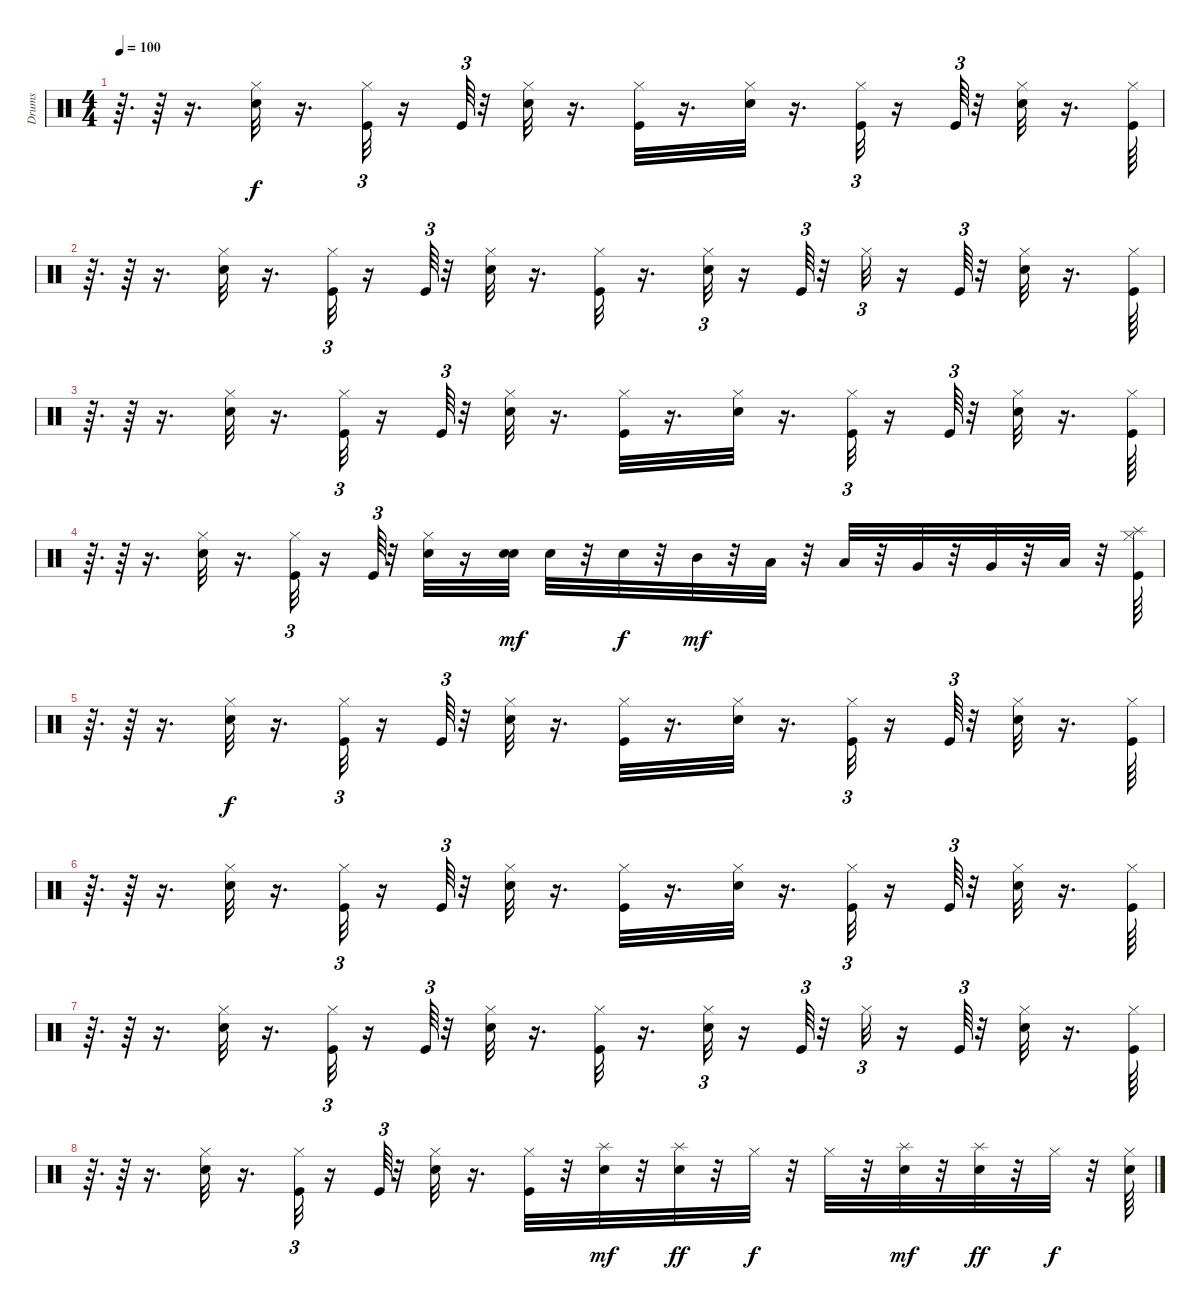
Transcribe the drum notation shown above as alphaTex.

\track ("Drums" "Drums") {instrument percussion}
\staff {score}
\articulation defaults
\ts (4 4)
\tempo 100
\clef neutral
\ks c
r.64{d dy mf} r.64 r.16{d} ("Snare (hit) 2" "Hi-Hat (closed)").32{dy f} r.16{d} ("Kick (hit)" "Hi-Hat (closed)").32{tu (3 2)} r.16 "Kick (hit)".64{tu (3 2)} r.32 ("Snare (hit) 2" "Hi-Hat (closed)").32 r.16{d} ("Kick (hit)" "Hi-Hat (closed)").32 r.16{d} ("Snare (hit) 2" "Hi-Hat (closed)").32 r.16{d} ("Kick (hit)" "Hi-Hat (closed)").32{tu (3 2)} r.16 "Kick (hit)".64{tu (3 2)} r.32 ("Snare (hit) 2" "Hi-Hat (closed)").32 r.16{d} ("Kick (hit)" "Hi-Hat (closed)").64 |
r.64{d} r.64 r.16{d} ("Snare (hit) 2" "Hi-Hat (closed)").32 r.16{d} ("Kick (hit)" "Hi-Hat (closed)").32{tu (3 2)} r.16 "Kick (hit)".64{tu (3 2)} r.32 ("Snare (hit) 2" "Hi-Hat (closed)").32 r.16{d} ("Kick (hit)" "Hi-Hat (closed)").32 r.16{d} ("Snare (hit) 2" "Hi-Hat (closed)").32{tu (3 2)} r.16 "Kick (hit)".64{tu (3 2)} r.32 "Hi-Hat (closed)".32{tu (3 2)} r.16 "Kick (hit)".64{tu (3 2)} r.32 ("Snare (hit) 2" "Hi-Hat (closed)").32 r.16{d} ("Kick (hit)" "Hi-Hat (closed)").64 |
r.64{d} r.64 r.16{d} ("Snare (hit) 2" "Hi-Hat (closed)").32 r.16{d} ("Kick (hit)" "Hi-Hat (closed)").32{tu (3 2)} r.16 "Kick (hit)".64{tu (3 2)} r.32 ("Snare (hit) 2" "Hi-Hat (closed)").32 r.16{d} ("Kick (hit)" "Hi-Hat (closed)").32 r.16{d} ("Snare (hit) 2" "Hi-Hat (closed)").32 r.16{d} ("Kick (hit)" "Hi-Hat (closed)").32{tu (3 2)} r.16 "Kick (hit)".64{tu (3 2)} r.32 ("Snare (hit) 2" "Hi-Hat (closed)").32 r.16{d} ("Kick (hit)" "Hi-Hat (closed)").64 |
r.64{d} r.64 r.16{d} ("Snare (hit) 2" "Hi-Hat (closed)").32 r.16{d} ("Kick (hit)" "Hi-Hat (closed)").32{tu (3 2)} r.16 "Kick (hit)".64{tu (3 2)} r.32 ("Snare (hit) 2" "Hi-Hat (closed)").32 r.16 ("Snare (hit) 2" "Snare (hit) 2").32{dy mf} "Snare (hit) 2".32 r.32 "Snare (hit) 2".32{dy f} r.32 "Mid Tom (hit)".32{dy mf} r.32 "Low Tom (hit)".32 r.32 "Low Tom (hit)".32 r.32 "Very Low Tom (hit)".32 r.32 "Very Low Tom (hit)".32 r.32 "Low Floor Tom (hit)".32 r.32 ("Kick (hit)" "Hi-Hat (closed)" "Splash (hit)").64 |
r.64{d} r.64 r.16{d} ("Snare (hit) 2" "Hi-Hat (closed)").32{dy f} r.16{d} ("Kick (hit)" "Hi-Hat (closed)").32{tu (3 2)} r.16 "Kick (hit)".64{tu (3 2)} r.32 ("Snare (hit) 2" "Hi-Hat (closed)").32 r.16{d} ("Kick (hit)" "Hi-Hat (closed)").32 r.16{d} ("Snare (hit) 2" "Hi-Hat (closed)").32 r.16{d} ("Kick (hit)" "Hi-Hat (closed)").32{tu (3 2)} r.16 "Kick (hit)".64{tu (3 2)} r.32 ("Snare (hit) 2" "Hi-Hat (closed)").32 r.16{d} ("Kick (hit)" "Hi-Hat (closed)").64 |
r.64{d} r.64 r.16{d} ("Snare (hit) 2" "Hi-Hat (closed)").32 r.16{d} ("Kick (hit)" "Hi-Hat (closed)").32{tu (3 2)} r.16 "Kick (hit)".64{tu (3 2)} r.32 ("Snare (hit) 2" "Hi-Hat (closed)").32 r.16{d} ("Kick (hit)" "Hi-Hat (closed)").32 r.16{d} ("Snare (hit) 2" "Hi-Hat (closed)").32 r.16{d} ("Kick (hit)" "Hi-Hat (closed)").32{tu (3 2)} r.16 "Kick (hit)".64{tu (3 2)} r.32 ("Snare (hit) 2" "Hi-Hat (closed)").32 r.16{d} ("Kick (hit)" "Hi-Hat (closed)").64 |
r.64{d} r.64 r.16{d} ("Snare (hit) 2" "Hi-Hat (closed)").32 r.16{d} ("Kick (hit)" "Hi-Hat (closed)").32{tu (3 2)} r.16 "Kick (hit)".64{tu (3 2)} r.32 ("Snare (hit) 2" "Hi-Hat (closed)").32 r.16{d} ("Kick (hit)" "Hi-Hat (closed)").32 r.16{d} ("Snare (hit) 2" "Hi-Hat (closed)").32{tu (3 2)} r.16 "Kick (hit)".64{tu (3 2)} r.32 "Hi-Hat (closed)".32{tu (3 2)} r.16 "Kick (hit)".64{tu (3 2)} r.32 ("Snare (hit) 2" "Hi-Hat (closed)").32 r.16{d} ("Kick (hit)" "Hi-Hat (closed)").64 |
r.64{d} r.64 r.16{d} ("Snare (hit) 2" "Hi-Hat (closed)").32 r.16{d} ("Kick (hit)" "Hi-Hat (closed)").32{tu (3 2)} r.16 "Kick (hit)".64{tu (3 2)} r.32 ("Snare (hit) 2" "Hi-Hat (closed)").32 r.16{d} ("Kick (hit)" "Hi-Hat (closed)").32 r.32 ("Snare (hit) 2" "Splash (hit)").32{dy mf} r.32 ("Snare (hit) 2" "Splash (hit)").32{dy ff} r.32 "Hi-Hat (closed)".32{dy f} r.32 "Hi-Hat (closed)".32 r.32 ("Snare (hit) 2" "Splash (hit)").32{dy mf} r.32 ("Snare (hit) 2" "Splash (hit)").32{dy ff} r.32 "Hi-Hat (closed)".32{dy f} r.32 ("Snare (hit) 2" "Hi-Hat (closed)").64
